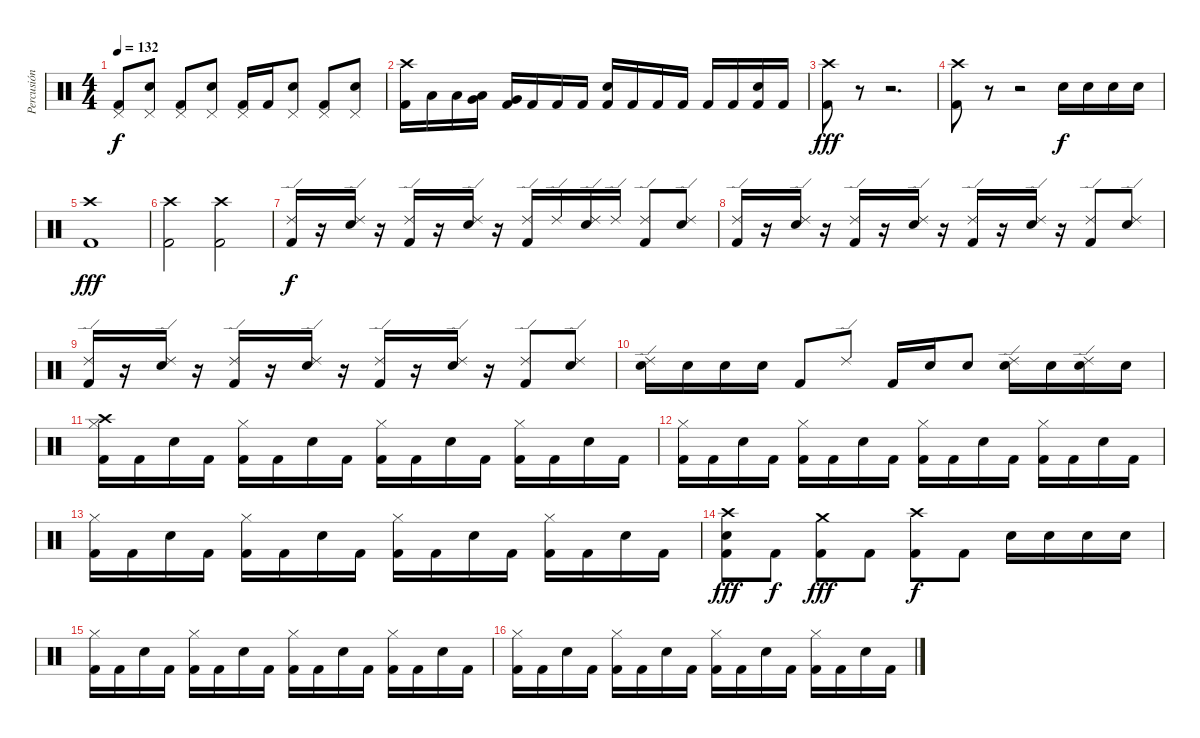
\track ("Percusión" "Percusión") {instrument percussion}
\staff {score}
\articulation defaults
\ts (4 4)
\tempo 132
\clef neutral
\ks c
("Pedal Hi-Hat (hit)" "Kick (hit) 2").8{dy f} ("Pedal Hi-Hat (hit)" "Electric Snare (hit)").8 ("Pedal Hi-Hat (hit)" "Kick (hit) 2").8 ("Pedal Hi-Hat (hit)" "Electric Snare (hit)").8 ("Pedal Hi-Hat (hit)" "Kick (hit) 2").16 "Kick (hit) 2".16 ("Pedal Hi-Hat (hit)" "Electric Snare (hit)").8 ("Pedal Hi-Hat (hit)" "Kick (hit) 2").8 ("Pedal Hi-Hat (hit)" "Electric Snare (hit)").8 |
("Crash high (hit)" "Kick (hit) 2").16 "Low Tom (hit)".16 "Low Tom (hit)".16 ("Low Tom (hit)" "Very Low Tom (hit)").16 ("Very Low Tom (hit)" "Kick (hit) 2").16 "Kick (hit) 2".16 "Kick (hit) 2".16 "Kick (hit) 2".16 ("Electric Snare (hit)" "Kick (hit) 2").16 "Kick (hit) 2".16 "Kick (hit) 2".16 "Kick (hit) 2".16 "Kick (hit) 2".16 "Kick (hit) 2".16 ("Electric Snare (hit)" "Kick (hit) 2").16 "Kick (hit) 2".16 |
("Crash high (hit)" "Kick (hit) 2").8{dy fff} r.8 r.2{d} |
("Crash high (hit)" "Kick (hit) 2").8 r.8 r.2 "Electric Snare (hit)".16{dy f} "Electric Snare (hit)".16 "Electric Snare (hit)".16 "Electric Snare (hit)".16 |
("Crash high (hit)" "Kick (hit) 2").1{dy fff} |
("Crash high (hit)" "Kick (hit) 2").2 ("Crash high (hit)" "Kick (hit) 2").2 |
("Ride (edge) 2" "Kick (hit) 2").16{dy f} r.16 ("Ride (edge) 2" "Electric Snare (hit)").16 r.16 ("Ride (edge) 2" "Kick (hit) 2").16 r.16 ("Ride (edge) 2" "Electric Snare (hit)").16 r.16 ("Ride (edge) 2" "Kick (hit) 2").16 "Ride (edge) 2".16 ("Ride (edge) 2" "Electric Snare (hit)").16 "Ride (edge) 2".16 ("Ride (edge) 2" "Kick (hit) 2").8 ("Ride (edge) 2" "Electric Snare (hit)").8 |
("Ride (edge) 2" "Kick (hit) 2").16 r.16 ("Ride (edge) 2" "Electric Snare (hit)").16 r.16 ("Ride (edge) 2" "Kick (hit) 2").16 r.16 ("Ride (edge) 2" "Electric Snare (hit)").16 r.16 ("Ride (edge) 2" "Kick (hit) 2").16 r.16 ("Ride (edge) 2" "Electric Snare (hit)").16 r.16 ("Ride (edge) 2" "Kick (hit) 2").8 ("Ride (edge) 2" "Electric Snare (hit)").8 |
("Ride (edge) 2" "Kick (hit) 2").16 r.16 ("Ride (edge) 2" "Electric Snare (hit)").16 r.16 ("Ride (edge) 2" "Kick (hit) 2").16 r.16 ("Ride (edge) 2" "Electric Snare (hit)").16 r.16 ("Ride (edge) 2" "Kick (hit) 2").16 r.16 ("Ride (edge) 2" "Electric Snare (hit)").16 r.16 ("Ride (edge) 2" "Kick (hit) 2").8 ("Ride (edge) 2" "Electric Snare (hit)").8 |
("Ride (edge) 2" "Electric Snare (hit)").16 "Electric Snare (hit)".16 "Electric Snare (hit)".16 "Electric Snare (hit)".16 "Kick (hit) 2".8 "Ride (edge) 2".8 "Kick (hit) 2".16 "Electric Snare (hit)".16 "Electric Snare (hit)".8 ("Ride (edge) 2" "Electric Snare (hit)").16 "Electric Snare (hit)".16 ("Ride (edge) 2" "Electric Snare (hit)").16 "Electric Snare (hit)".16 |
("Hi-Hat (closed)" "Crash high (hit)" "Kick (hit) 2").16 "Kick (hit) 2".16 "Electric Snare (hit)".16 "Kick (hit) 2".16 ("Hi-Hat (closed)" "Kick (hit) 2").16 "Kick (hit) 2".16 "Electric Snare (hit)".16 "Kick (hit) 2".16 ("Hi-Hat (closed)" "Kick (hit) 2").16 "Kick (hit) 2".16 "Electric Snare (hit)".16 "Kick (hit) 2".16 ("Hi-Hat (closed)" "Kick (hit) 2").16 "Kick (hit) 2".16 "Electric Snare (hit)".16 "Kick (hit) 2".16 |
("Hi-Hat (closed)" "Kick (hit) 2").16 "Kick (hit) 2".16 "Electric Snare (hit)".16 "Kick (hit) 2".16 ("Hi-Hat (closed)" "Kick (hit) 2").16 "Kick (hit) 2".16 "Electric Snare (hit)".16 "Kick (hit) 2".16 ("Hi-Hat (closed)" "Kick (hit) 2").16 "Kick (hit) 2".16 "Electric Snare (hit)".16 "Kick (hit) 2".16 ("Hi-Hat (closed)" "Kick (hit) 2").16 "Kick (hit) 2".16 "Electric Snare (hit)".16 "Kick (hit) 2".16 |
("Hi-Hat (closed)" "Kick (hit) 2").16 "Kick (hit) 2".16 "Electric Snare (hit)".16 "Kick (hit) 2".16 ("Hi-Hat (closed)" "Kick (hit) 2").16 "Kick (hit) 2".16 "Electric Snare (hit)".16 "Kick (hit) 2".16 ("Hi-Hat (closed)" "Kick (hit) 2").16 "Kick (hit) 2".16 "Electric Snare (hit)".16 "Kick (hit) 2".16 ("Hi-Hat (closed)" "Kick (hit) 2").16 "Kick (hit) 2".16 "Electric Snare (hit)".16 "Kick (hit) 2".16 |
("Crash high (hit)" "Electric Snare (hit)" "Kick (hit) 2").8{dy fff} "Kick (hit) 2".8{dy f} ("Crash medium (hit)" "Kick (hit) 2").8{dy fff} "Kick (hit) 2".8 ("Crash high (hit)" "Kick (hit) 2").8{dy f} "Kick (hit) 2".8 "Electric Snare (hit)".16 "Electric Snare (hit)".16 "Electric Snare (hit)".16 "Electric Snare (hit)".16 |
("Hi-Hat (closed)" "Kick (hit) 2").16 "Kick (hit) 2".16 "Electric Snare (hit)".16 "Kick (hit) 2".16 ("Hi-Hat (closed)" "Kick (hit) 2").16 "Kick (hit) 2".16 "Electric Snare (hit)".16 "Kick (hit) 2".16 ("Hi-Hat (closed)" "Kick (hit) 2").16 "Kick (hit) 2".16 "Electric Snare (hit)".16 "Kick (hit) 2".16 ("Hi-Hat (closed)" "Kick (hit) 2").16 "Kick (hit) 2".16 "Electric Snare (hit)".16 "Kick (hit) 2".16 |
("Hi-Hat (closed)" "Kick (hit) 2").16 "Kick (hit) 2".16 "Electric Snare (hit)".16 "Kick (hit) 2".16 ("Hi-Hat (closed)" "Kick (hit) 2").16 "Kick (hit) 2".16 "Electric Snare (hit)".16 "Kick (hit) 2".16 ("Hi-Hat (closed)" "Kick (hit) 2").16 "Kick (hit) 2".16 "Electric Snare (hit)".16 "Kick (hit) 2".16 ("Hi-Hat (closed)" "Kick (hit) 2").16 "Kick (hit) 2".16 "Electric Snare (hit)".16 "Kick (hit) 2".16
